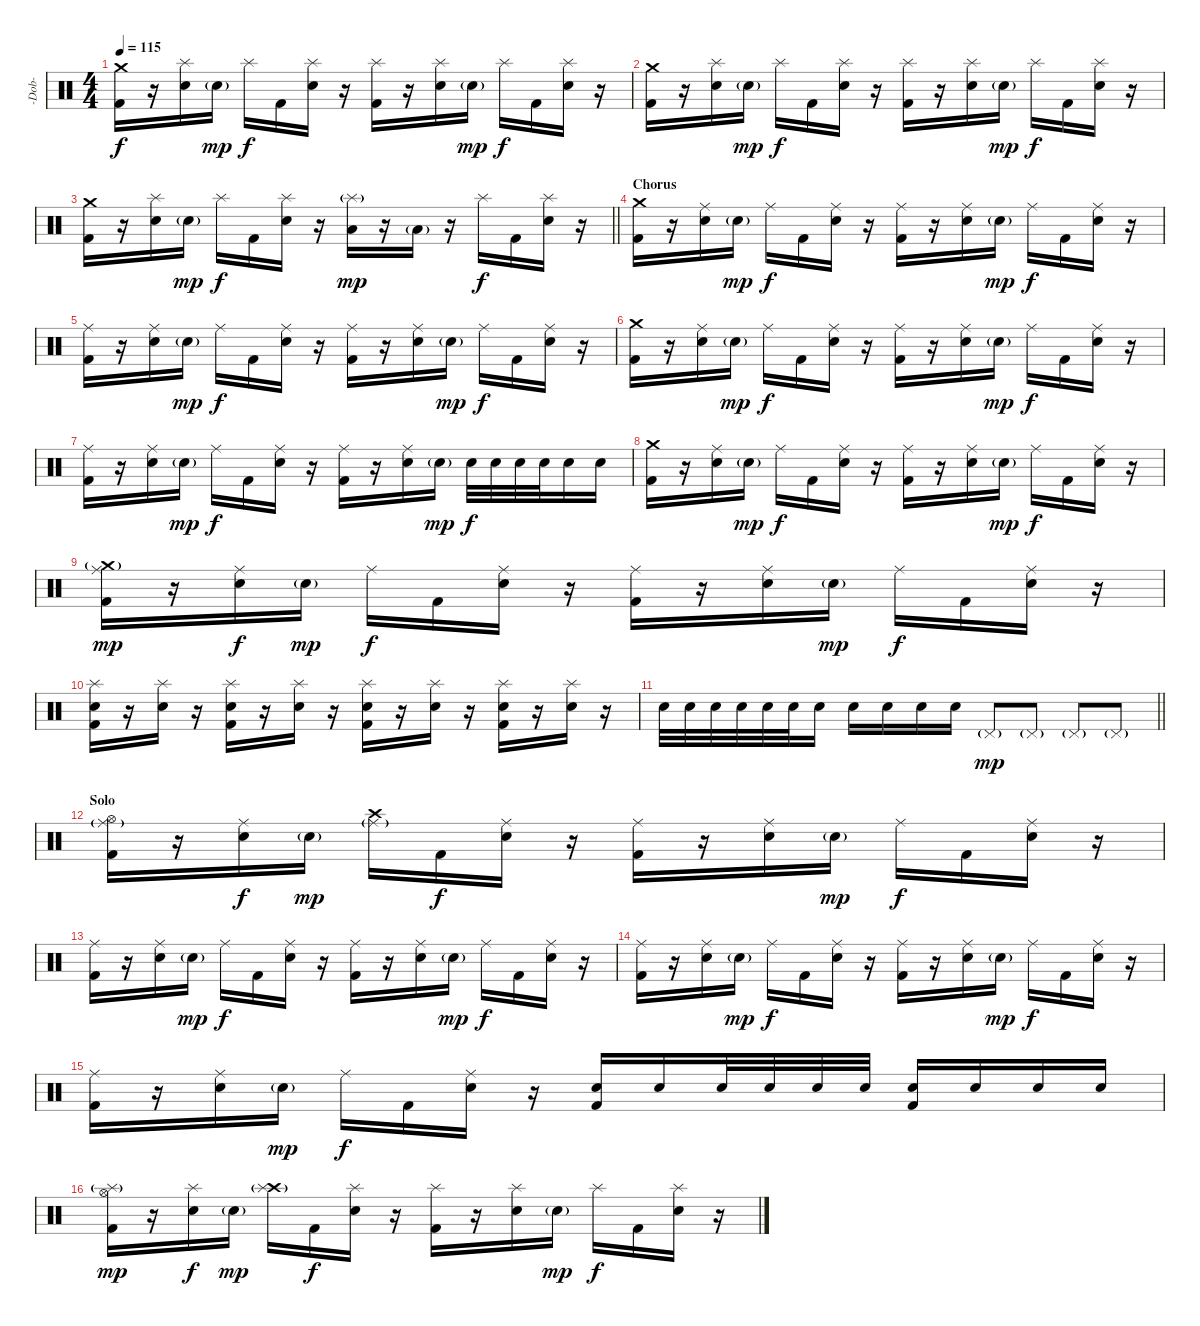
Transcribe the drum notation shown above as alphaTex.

\track ("-Dob-" "-Dob-") {instrument percussion}
\staff {score}
\articulation defaults
\ts (4 4)
\tempo 115
\clef neutral
\ks c
("Crash medium (hit)" "Kick (hit) 2").16{dy f} r.16 ("Splash (hit)" "Snare (hit) 2").16 "Snare (hit) 2"{g}.16{dy mp} "Splash (hit)".16{dy f} "Kick (hit) 2".16 ("Splash (hit)" "Snare (hit) 2").16 r.16 ("Splash (hit)" "Kick (hit) 2").16 r.16 ("Splash (hit)" "Snare (hit) 2").16 "Snare (hit) 2"{g}.16{dy mp} "Splash (hit)".16{dy f} "Kick (hit) 2".16 ("Splash (hit)" "Snare (hit) 2").16 r.16 |
("Crash medium (hit)" "Kick (hit) 2").16 r.16 ("Splash (hit)" "Snare (hit) 2").16 "Snare (hit) 2"{g}.16{dy mp} "Splash (hit)".16{dy f} "Kick (hit) 2".16 ("Splash (hit)" "Snare (hit) 2").16 r.16 ("Splash (hit)" "Kick (hit) 2").16 r.16 ("Splash (hit)" "Snare (hit) 2").16 "Snare (hit) 2"{g}.16{dy mp} "Splash (hit)".16{dy f} "Kick (hit) 2".16 ("Splash (hit)" "Snare (hit) 2").16 r.16 |
\barLineRight lightlight
("Crash medium (hit)" "Kick (hit) 2").16 r.16 ("Splash (hit)" "Snare (hit) 2").16 "Snare (hit) 2"{g}.16{dy mp} "Splash (hit)".16{dy f} "Kick (hit) 2".16 ("Splash (hit)" "Snare (hit) 2").16 r.16 ("Splash (hit)"{g} "Low Floor Tom (hit)").16{dy mp} r.16 "Low Floor Tom (hit)"{g}.16 r.16 "Splash (hit)".16{dy f} "Kick (hit) 2".16 ("Splash (hit)" "Snare (hit) 2").16 r.16 |
\section ("" "Chorus")
("Crash medium (hit)" "Kick (hit) 2").16 r.16 ("Ride (middle)" "Snare (hit) 2").16 "Snare (hit) 2"{g}.16{dy mp} "Ride (middle)".16{dy f} "Kick (hit) 2".16 ("Ride (middle)" "Snare (hit) 2").16 r.16 ("Ride (middle)" "Kick (hit) 2").16 r.16 ("Ride (middle)" "Snare (hit) 2").16 "Snare (hit) 2"{g}.16{dy mp} "Ride (middle)".16{dy f} "Kick (hit) 2".16 ("Ride (middle)" "Snare (hit) 2").16 r.16 |
("Ride (middle)" "Kick (hit) 2").16 r.16 ("Ride (middle)" "Snare (hit) 2").16 "Snare (hit) 2"{g}.16{dy mp} "Ride (middle)".16{dy f} "Kick (hit) 2".16 ("Ride (middle)" "Snare (hit) 2").16 r.16 ("Ride (middle)" "Kick (hit) 2").16 r.16 ("Ride (middle)" "Snare (hit) 2").16 "Snare (hit) 2"{g}.16{dy mp} "Ride (middle)".16{dy f} "Kick (hit) 2".16 ("Ride (middle)" "Snare (hit) 2").16 r.16 |
("Crash medium (hit)" "Kick (hit) 2").16 r.16 ("Ride (middle)" "Snare (hit) 2").16 "Snare (hit) 2"{g}.16{dy mp} "Ride (middle)".16{dy f} "Kick (hit) 2".16 ("Ride (middle)" "Snare (hit) 2").16 r.16 ("Ride (middle)" "Kick (hit) 2").16 r.16 ("Ride (middle)" "Snare (hit) 2").16 "Snare (hit) 2"{g}.16{dy mp} "Ride (middle)".16{dy f} "Kick (hit) 2".16 ("Ride (middle)" "Snare (hit) 2").16 r.16 |
("Ride (middle)" "Kick (hit) 2").16 r.16 ("Ride (middle)" "Snare (hit) 2").16 "Snare (hit) 2"{g}.16{dy mp} "Ride (middle)".16{dy f} "Kick (hit) 2".16 ("Ride (middle)" "Snare (hit) 2").16 r.16 ("Ride (middle)" "Kick (hit) 2").16 r.16 ("Ride (middle)" "Snare (hit) 2").16 "Snare (hit) 2"{g}.16{dy mp} "Snare (hit) 2".32{dy f} "Snare (hit) 2".32 "Snare (hit) 2".32 "Snare (hit) 2".32 "Snare (hit) 2".16 "Snare (hit) 2".16 |
("Crash medium (hit)" "Kick (hit) 2").16 r.16 ("Ride (middle)" "Snare (hit) 2").16 "Snare (hit) 2"{g}.16{dy mp} "Ride (middle)".16{dy f} "Kick (hit) 2".16 ("Ride (middle)" "Snare (hit) 2").16 r.16 ("Ride (middle)" "Kick (hit) 2").16 r.16 ("Ride (middle)" "Snare (hit) 2").16 "Snare (hit) 2"{g}.16{dy mp} "Ride (middle)".16{dy f} "Kick (hit) 2".16 ("Ride (middle)" "Snare (hit) 2").16 r.16 |
("Crash medium (hit)"{g} "Ride (middle)" "Kick (hit) 2").16{dy mp} r.16 ("Ride (middle)" "Snare (hit) 2").16{dy f} "Snare (hit) 2"{g}.16{dy mp} "Ride (middle)".16{dy f} "Kick (hit) 2".16 ("Ride (middle)" "Snare (hit) 2").16 r.16 ("Ride (middle)" "Kick (hit) 2").16 r.16 ("Ride (middle)" "Snare (hit) 2").16 "Snare (hit) 2"{g}.16{dy mp} "Ride (middle)".16{dy f} "Kick (hit) 2".16 ("Ride (middle)" "Snare (hit) 2").16 r.16 |
("Splash (hit)" "Snare (hit) 2" "Kick (hit) 2").16 r.16 ("Splash (hit)" "Snare (hit) 2").16 r.16 ("Splash (hit)" "Snare (hit) 2" "Kick (hit) 2").16 r.16 ("Splash (hit)" "Snare (hit) 2").16 r.16 ("Splash (hit)" "Snare (hit) 2" "Kick (hit) 2").16 r.16 ("Splash (hit)" "Snare (hit) 2").16 r.16 ("Splash (hit)" "Snare (hit) 2" "Kick (hit) 2").16 r.16 ("Splash (hit)" "Snare (hit) 2").16 r.16 |
\barLineRight lightlight "Snare (hit) 2".32 "Snare (hit) 2".32 "Snare (hit) 2".32 "Snare (hit) 2".32 "Snare (hit) 2".32 "Snare (hit) 2".32 "Snare (hit) 2".16 "Snare (hit) 2".16 "Snare (hit) 2".16 "Snare (hit) 2".16 "Snare (hit) 2".16 "Pedal Hi-Hat (hit)"{g}.8{dy mp} "Pedal Hi-Hat (hit)"{g}.8 "Pedal Hi-Hat (hit)"{g}.8 "Pedal Hi-Hat (hit)"{g}.8
|
\section ("" "Solo")
("Hi-Hat (open)" "Ride (middle)"{g} "Kick (hit) 2").16 r.16 ("Ride (middle)" "Snare (hit) 2").16{dy f} "Snare (hit) 2"{g}.16{dy mp} ("Crash high (hit)" "Ride (middle)"{g}).16 "Kick (hit) 2".16{dy f} ("Ride (middle)" "Snare (hit) 2").16 r.16 ("Ride (middle)" "Kick (hit) 2").16 r.16 ("Ride (middle)" "Snare (hit) 2").16 "Snare (hit) 2"{g}.16{dy mp} "Ride (middle)".16{dy f} "Kick (hit) 2".16 ("Ride (middle)" "Snare (hit) 2").16 r.16 |
("Ride (middle)" "Kick (hit) 2").16 r.16 ("Ride (middle)" "Snare (hit) 2").16 "Snare (hit) 2"{g}.16{dy mp} "Ride (middle)".16{dy f} "Kick (hit) 2".16 ("Ride (middle)" "Snare (hit) 2").16 r.16 ("Ride (middle)" "Kick (hit) 2").16 r.16 ("Ride (middle)" "Snare (hit) 2").16 "Snare (hit) 2"{g}.16{dy mp} "Ride (middle)".16{dy f} "Kick (hit) 2".16 ("Ride (middle)" "Snare (hit) 2").16 r.16 |
("Ride (middle)" "Kick (hit) 2").16 r.16 ("Ride (middle)" "Snare (hit) 2").16 "Snare (hit) 2"{g}.16{dy mp} "Ride (middle)".16{dy f} "Kick (hit) 2".16 ("Ride (middle)" "Snare (hit) 2").16 r.16 ("Ride (middle)" "Kick (hit) 2").16 r.16 ("Ride (middle)" "Snare (hit) 2").16 "Snare (hit) 2"{g}.16{dy mp} "Ride (middle)".16{dy f} "Kick (hit) 2".16 ("Ride (middle)" "Snare (hit) 2").16 r.16 |
("Ride (middle)" "Kick (hit) 2").16 r.16 ("Ride (middle)" "Snare (hit) 2").16 "Snare (hit) 2"{g}.16{dy mp} "Ride (middle)".16{dy f} "Kick (hit) 2".16 ("Ride (middle)" "Snare (hit) 2").16 r.16 ("Snare (hit) 2" "Kick (hit) 2").16 "Snare (hit) 2".16 "Snare (hit) 2".32 "Snare (hit) 2".32 "Snare (hit) 2".32 "Snare (hit) 2".32 ("Snare (hit) 2" "Kick (hit) 2").16 "Snare (hit) 2".16 "Snare (hit) 2".16 "Snare (hit) 2".16 |
("Hi-Hat (open)" "Splash (hit)"{g} "Kick (hit) 2").16{dy mp} r.16 ("Splash (hit)" "Snare (hit) 2").16{dy f} "Snare (hit) 2"{g}.16{dy mp} ("Crash high (hit)" "Splash (hit)"{g}).16 "Kick (hit) 2".16{dy f} ("Splash (hit)" "Snare (hit) 2").16 r.16 ("Splash (hit)" "Kick (hit) 2").16 r.16 ("Splash (hit)" "Snare (hit) 2").16 "Snare (hit) 2"{g}.16{dy mp} "Splash (hit)".16{dy f} "Kick (hit) 2".16 ("Splash (hit)" "Snare (hit) 2").16 r.16
